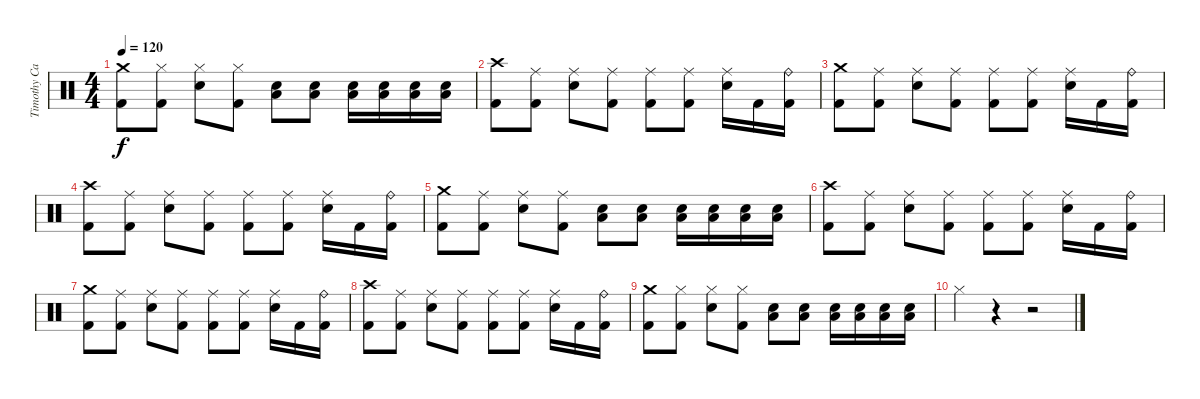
\track ("Timothy Calkin" "Timothy Ca") {instrument percussion}
\staff {score}
\articulation defaults
\ts (4 4)
\tempo 120
\clef neutral
\ks c
("Crash medium (hit)" "Kick (hit) 2").8{dy f} ("Hi-Hat (closed)" "Kick (hit) 2").8 ("Hi-Hat (closed)" "Snare (hit) 2").8 ("Hi-Hat (closed)" "Kick (hit) 2").8 ("Snare (hit) 2" "Low Floor Tom (hit)").8 ("Snare (hit) 2" "Low Floor Tom (hit)").8 ("Snare (hit) 2" "Low Floor Tom (hit)").16 ("Snare (hit) 2" "Low Floor Tom (hit)").16 ("Snare (hit) 2" "Low Floor Tom (hit)").16 ("Snare (hit) 2" "Low Floor Tom (hit)").16 |
("Crash high (hit)" "Kick (hit) 2").8 ("Ride (middle)" "Kick (hit) 2").8 ("Ride (middle)" "Snare (hit) 2").8 ("Ride (middle)" "Kick (hit) 2").8 ("Ride (middle)" "Kick (hit) 2").8 ("Ride (middle)" "Kick (hit) 2").8 ("Ride (middle)" "Snare (hit) 2").16 "Kick (hit) 2".16 ("Ride (bell)" "Kick (hit) 2").16 |
("Crash medium (hit)" "Kick (hit) 2").8 ("Ride (middle)" "Kick (hit) 2").8 ("Ride (middle)" "Snare (hit) 2").8 ("Ride (middle)" "Kick (hit) 2").8 ("Ride (middle)" "Kick (hit) 2").8 ("Ride (middle)" "Kick (hit) 2").8 ("Ride (middle)" "Snare (hit) 2").16 "Kick (hit) 2".16 ("Ride (bell)" "Kick (hit) 2").16 |
("Crash high (hit)" "Kick (hit) 2").8 ("Ride (middle)" "Kick (hit) 2").8 ("Ride (middle)" "Snare (hit) 2").8 ("Ride (middle)" "Kick (hit) 2").8 ("Ride (middle)" "Kick (hit) 2").8 ("Ride (middle)" "Kick (hit) 2").8 ("Ride (middle)" "Snare (hit) 2").16 "Kick (hit) 2".16 ("Ride (bell)" "Kick (hit) 2").16 |
("Crash medium (hit)" "Kick (hit) 2").8 ("Ride (middle)" "Kick (hit) 2").8 ("Ride (middle)" "Snare (hit) 2").8 ("Ride (middle)" "Kick (hit) 2").8 ("Snare (hit) 2" "Low Floor Tom (hit)").8 ("Snare (hit) 2" "Low Floor Tom (hit)").8 ("Snare (hit) 2" "Low Floor Tom (hit)").16 ("Snare (hit) 2" "Low Floor Tom (hit)").16 ("Snare (hit) 2" "Low Floor Tom (hit)").16 ("Snare (hit) 2" "Low Floor Tom (hit)").16 |
("Crash high (hit)" "Kick (hit) 2").8 ("Ride (middle)" "Kick (hit) 2").8 ("Ride (middle)" "Snare (hit) 2").8 ("Ride (middle)" "Kick (hit) 2").8 ("Ride (middle)" "Kick (hit) 2").8 ("Ride (middle)" "Kick (hit) 2").8 ("Ride (middle)" "Snare (hit) 2").16 "Kick (hit) 2".16 ("Ride (bell)" "Kick (hit) 2").16 |
("Crash medium (hit)" "Kick (hit) 2").8 ("Ride (middle)" "Kick (hit) 2").8 ("Ride (middle)" "Snare (hit) 2").8 ("Ride (middle)" "Kick (hit) 2").8 ("Ride (middle)" "Kick (hit) 2").8 ("Ride (middle)" "Kick (hit) 2").8 ("Ride (middle)" "Snare (hit) 2").16 "Kick (hit) 2".16 ("Ride (bell)" "Kick (hit) 2").16 |
("Crash high (hit)" "Kick (hit) 2").8 ("Ride (middle)" "Kick (hit) 2").8 ("Ride (middle)" "Snare (hit) 2").8 ("Ride (middle)" "Kick (hit) 2").8 ("Ride (middle)" "Kick (hit) 2").8 ("Ride (middle)" "Kick (hit) 2").8 ("Ride (middle)" "Snare (hit) 2").16 "Kick (hit) 2".16 ("Ride (bell)" "Kick (hit) 2").16 |
("Crash medium (hit)" "Kick (hit) 2").8 ("Hi-Hat (closed)" "Kick (hit) 2").8 ("Hi-Hat (closed)" "Snare (hit) 2").8 ("Hi-Hat (closed)" "Kick (hit) 2").8 ("Snare (hit) 2" "Low Floor Tom (hit)").8 ("Snare (hit) 2" "Low Floor Tom (hit)").8 ("Snare (hit) 2" "Low Floor Tom (hit)").16 ("Snare (hit) 2" "Low Floor Tom (hit)").16 ("Snare (hit) 2" "Low Floor Tom (hit)").16 ("Snare (hit) 2" "Low Floor Tom (hit)").16 |
"Hi-Hat (closed)".4 r.4 r.2
